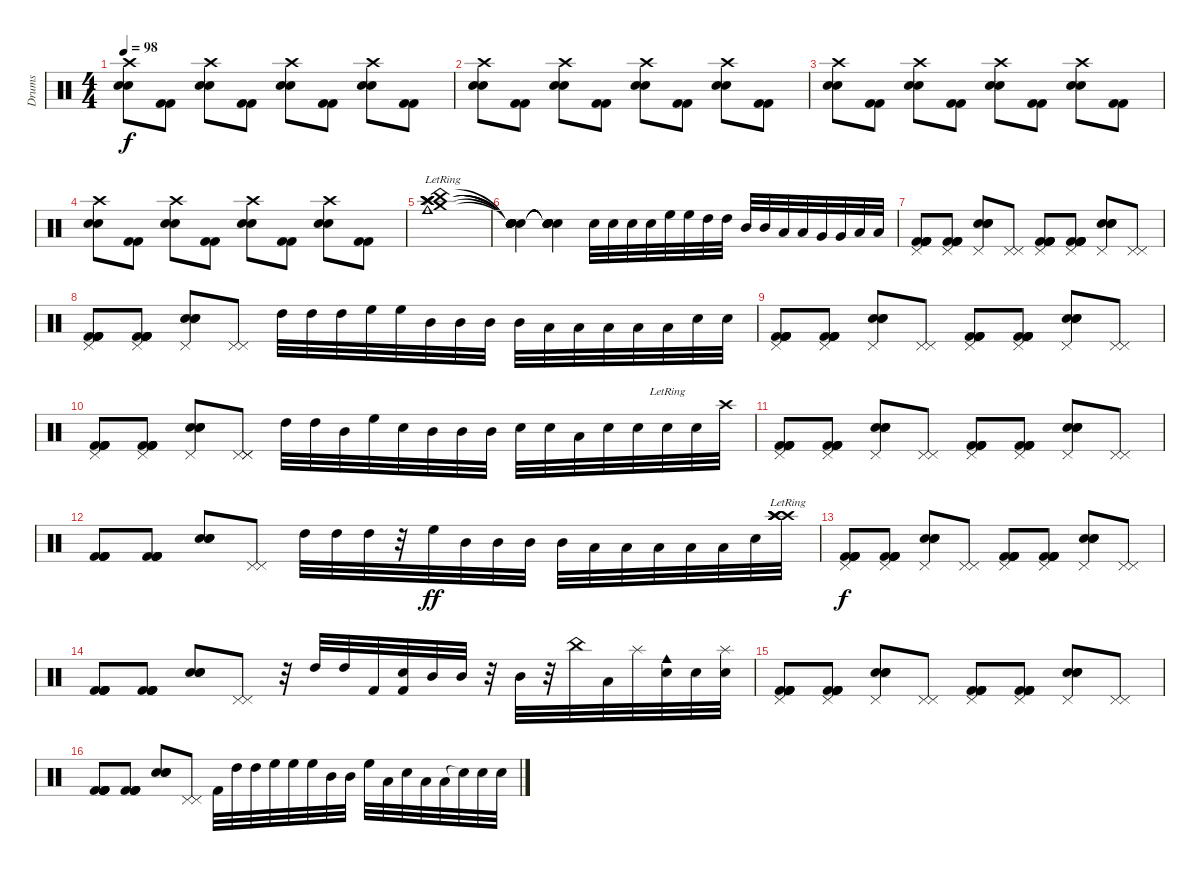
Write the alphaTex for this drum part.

\track ("Drums" "Drums") {instrument percussion}
\staff {score}
\articulation defaults
\ts (4 4)
\tempo 98
\clef neutral
\ks c
("Crash high (hit)" "Electric Snare (hit)" "Electric Snare (hit)").8{dy f} ("Kick (hit) 2" "Kick (hit) 2").8 ("Crash high (hit)" "Electric Snare (hit)" "Electric Snare (hit)").8 ("Kick (hit) 2" "Kick (hit) 2").8 ("Crash high (hit)" "Electric Snare (hit)" "Electric Snare (hit)").8 ("Kick (hit) 2" "Kick (hit) 2").8 ("Crash high (hit)" "Electric Snare (hit)" "Electric Snare (hit)").8 ("Kick (hit) 2" "Kick (hit) 2").8 |
("Crash high (hit)" "Electric Snare (hit)" "Electric Snare (hit)").8 ("Kick (hit) 2" "Kick (hit) 2").8 ("Crash high (hit)" "Electric Snare (hit)" "Electric Snare (hit)").8 ("Kick (hit) 2" "Kick (hit) 2").8 ("Crash high (hit)" "Electric Snare (hit)" "Electric Snare (hit)").8 ("Kick (hit) 2" "Kick (hit) 2").8 ("Crash high (hit)" "Electric Snare (hit)" "Electric Snare (hit)").8 ("Kick (hit) 2" "Kick (hit) 2").8 |
("Crash high (hit)" "Electric Snare (hit)" "Electric Snare (hit)").8 ("Kick (hit) 2" "Kick (hit) 2").8 ("Crash high (hit)" "Electric Snare (hit)" "Electric Snare (hit)").8 ("Kick (hit) 2" "Kick (hit) 2").8 ("Crash high (hit)" "Electric Snare (hit)" "Electric Snare (hit)").8 ("Kick (hit) 2" "Kick (hit) 2").8 ("Crash high (hit)" "Electric Snare (hit)" "Electric Snare (hit)").8 ("Kick (hit) 2" "Kick (hit) 2").8 |
("Crash high (hit)" "Electric Snare (hit)" "Electric Snare (hit)").8 ("Kick (hit) 2" "Kick (hit) 2").8 ("Crash high (hit)" "Electric Snare (hit)" "Electric Snare (hit)").8 ("Kick (hit) 2" "Kick (hit) 2").8 ("Crash high (hit)" "Electric Snare (hit)" "Electric Snare (hit)").8 ("Kick (hit) 2" "Kick (hit) 2").8 ("Crash high (hit)" "Electric Snare (hit)" "Electric Snare (hit)").8 ("Kick (hit) 2" "Kick (hit) 2").8 |
("Cowbell medium (hit)"{lr} "Crash high (hit)"{lr} "Crash high (hit)"{lr} "Crash medium (hit)"{lr} "China (hit)"{lr} "Splash (hit)"{lr}).1 |
("Snare (hit)"{t} "Snare (hit)"{t} "Snare (hit)"{t} "Snare (hit)"{t} "Snare (hit)"{t} "Snare (hit)"{t}).4 ("Snare (hit)"{t} "Snare (hit)"{t} "Snare (hit)"{t} "Snare (hit)"{t} "Snare (hit)"{t} "Snare (hit)"{t}).4 "Electric Snare (hit)".32 "Electric Snare (hit)".32 "Electric Snare (hit)".32 "Electric Snare (hit)".32 "High Floor Tom (hit)".32 "High Floor Tom (hit)".32 "High Tom (hit)".32 "High Tom (hit)".32 "Mid Tom (hit)".32 "Mid Tom (hit)".32 "Low Tom (hit)".32 "Low Tom (hit)".32 "Very Low Tom (hit)".32 "Very Low Tom (hit)".32 "Low Floor Tom (hit)".32 "Low Floor Tom (hit)".32 |
("Pedal Hi-Hat (hit)" "Kick (hit) 2" "Kick (hit) 2" "Kick (hit) 2" "Kick (hit) 2").8 ("Pedal Hi-Hat (hit)" "Kick (hit) 2" "Kick (hit) 2" "Kick (hit) 2" "Kick (hit) 2").8 ("Pedal Hi-Hat (hit)" "Electric Snare (hit)" "Electric Snare (hit)" "Electric Snare (hit)").8 ("Pedal Hi-Hat (hit)" "Pedal Hi-Hat (hit)").8 ("Pedal Hi-Hat (hit)" "Kick (hit) 2" "Kick (hit) 2" "Kick (hit) 2" "Kick (hit) 2").8 ("Pedal Hi-Hat (hit)" "Kick (hit) 2" "Kick (hit) 2" "Kick (hit) 2" "Kick (hit) 2").8 ("Pedal Hi-Hat (hit)" "Electric Snare (hit)" "Electric Snare (hit)" "Electric Snare (hit)").8 ("Pedal Hi-Hat (hit)" "Pedal Hi-Hat (hit)").8 |
("Pedal Hi-Hat (hit)" "Kick (hit) 2" "Kick (hit) 2" "Kick (hit) 2" "Kick (hit) 2").8 ("Pedal Hi-Hat (hit)" "Kick (hit) 2" "Kick (hit) 2" "Kick (hit) 2" "Kick (hit) 2").8 ("Pedal Hi-Hat (hit)" "Electric Snare (hit)" "Electric Snare (hit)" "Electric Snare (hit)").8 ("Pedal Hi-Hat (hit)" "Pedal Hi-Hat (hit)").8 "High Tom (hit)".32 "High Tom (hit)".32 "High Tom (hit)".32 "High Floor Tom (hit)".32 "High Floor Tom (hit)".32 "Mid Tom (hit)".32 "Mid Tom (hit)".32 "Mid Tom (hit)".32 "Mid Tom (hit)".32 "Low Tom (hit)".32 "Low Tom (hit)".32 "Low Tom (hit)".32 "Low Floor Tom (hit)".32 "Low Floor Tom (hit)".32 "Electric Snare (hit)".32 "Electric Snare (hit)".32 |
("Pedal Hi-Hat (hit)" "Kick (hit) 2" "Kick (hit) 2" "Kick (hit) 2" "Kick (hit) 2").8 ("Pedal Hi-Hat (hit)" "Kick (hit) 2" "Kick (hit) 2" "Kick (hit) 2" "Kick (hit) 2").8 ("Pedal Hi-Hat (hit)" "Electric Snare (hit)" "Electric Snare (hit)" "Electric Snare (hit)").8 ("Pedal Hi-Hat (hit)" "Pedal Hi-Hat (hit)").8 ("Pedal Hi-Hat (hit)" "Kick (hit) 2" "Kick (hit) 2" "Kick (hit) 2" "Kick (hit) 2").8 ("Pedal Hi-Hat (hit)" "Kick (hit) 2" "Kick (hit) 2" "Kick (hit) 2" "Kick (hit) 2").8 ("Pedal Hi-Hat (hit)" "Electric Snare (hit)" "Electric Snare (hit)" "Electric Snare (hit)").8 ("Pedal Hi-Hat (hit)" "Pedal Hi-Hat (hit)").8 |
("Pedal Hi-Hat (hit)" "Kick (hit) 2" "Kick (hit) 2" "Kick (hit) 2" "Kick (hit) 2").8 ("Pedal Hi-Hat (hit)" "Kick (hit) 2" "Kick (hit) 2" "Kick (hit) 2" "Kick (hit) 2").8 ("Pedal Hi-Hat (hit)" "Electric Snare (hit)" "Electric Snare (hit)" "Electric Snare (hit)").8 ("Pedal Hi-Hat (hit)" "Pedal Hi-Hat (hit)" "Pedal Hi-Hat (hit)").8 "High Tom (hit)".32 "High Tom (hit)".32 "Mid Tom (hit)".32 "High Floor Tom (hit)".32 "Snare (hit) 2".32 "Mid Tom (hit)".32 "Mid Tom (hit)".32 "Mid Tom (hit)".32 "Snare (hit) 2".32 "Snare (hit) 2".32 "Low Tom (hit)".32 "Snare (hit) 2".32 "Electric Snare (hit)".32 "Snare (hit) 2"{lr}.32 "Snare (hit) 2".32 "Crash high (hit)".32 |
("Pedal Hi-Hat (hit)" "Kick (hit) 2" "Kick (hit) 2" "Kick (hit) 2" "Kick (hit) 2").8 ("Pedal Hi-Hat (hit)" "Kick (hit) 2" "Kick (hit) 2" "Kick (hit) 2" "Kick (hit) 2").8 ("Pedal Hi-Hat (hit)" "Electric Snare (hit)" "Electric Snare (hit)" "Electric Snare (hit)").8 ("Pedal Hi-Hat (hit)" "Pedal Hi-Hat (hit)").8 ("Pedal Hi-Hat (hit)" "Kick (hit) 2" "Kick (hit) 2" "Kick (hit) 2" "Kick (hit) 2").8 ("Pedal Hi-Hat (hit)" "Kick (hit) 2" "Kick (hit) 2" "Kick (hit) 2" "Kick (hit) 2").8 ("Pedal Hi-Hat (hit)" "Electric Snare (hit)" "Electric Snare (hit)" "Electric Snare (hit)").8 ("Pedal Hi-Hat (hit)" "Pedal Hi-Hat (hit)").8 |
("Kick (hit) 2" "Kick (hit) 2" "Kick (hit) 2" "Kick (hit) 2").8 ("Kick (hit) 2" "Kick (hit) 2" "Kick (hit) 2" "Kick (hit) 2").8 ("Electric Snare (hit)" "Electric Snare (hit)" "Electric Snare (hit)").8 ("Pedal Hi-Hat (hit)" "Pedal Hi-Hat (hit)").8 "High Tom (hit)".32 "High Tom (hit)".32 "High Tom (hit)".32 r.32 "High Floor Tom (hit)".32{dy ff} "Mid Tom (hit)".32 "Mid Tom (hit)".32 "Mid Tom (hit)".32 "Mid Tom (hit)".32 "Low Tom (hit)".32 "Low Tom (hit)".32 "Low Tom (hit)".32 "Low Floor Tom (hit)".32 "Low Floor Tom (hit)".32 "Electric Snare (hit)".32 ("Crash high (hit)"{lr} "Crash high (hit)"{lr} "Crash high (hit)"{lr} "Crash high (hit)"{lr}).32 |
("Pedal Hi-Hat (hit)" "Kick (hit) 2" "Kick (hit) 2" "Kick (hit) 2" "Kick (hit) 2").8{dy f} ("Pedal Hi-Hat (hit)" "Kick (hit) 2" "Kick (hit) 2" "Kick (hit) 2" "Kick (hit) 2").8 ("Pedal Hi-Hat (hit)" "Electric Snare (hit)" "Electric Snare (hit)" "Electric Snare (hit)").8 ("Pedal Hi-Hat (hit)" "Pedal Hi-Hat (hit)").8 ("Pedal Hi-Hat (hit)" "Kick (hit) 2" "Kick (hit) 2" "Kick (hit) 2" "Kick (hit) 2").8 ("Pedal Hi-Hat (hit)" "Kick (hit) 2" "Kick (hit) 2" "Kick (hit) 2" "Kick (hit) 2").8 ("Pedal Hi-Hat (hit)" "Electric Snare (hit)" "Electric Snare (hit)" "Electric Snare (hit)").8 ("Pedal Hi-Hat (hit)" "Pedal Hi-Hat (hit)").8 |
("Kick (hit) 2" "Kick (hit) 2" "Kick (hit) 2" "Kick (hit) 2").8 ("Kick (hit) 2" "Kick (hit) 2" "Kick (hit) 2" "Kick (hit) 2").8 ("Electric Snare (hit)" "Electric Snare (hit)" "Electric Snare (hit)").8 ("Pedal Hi-Hat (hit)" "Pedal Hi-Hat (hit)").8 r.32 "High Tom (hit)".32 "High Tom (hit)".32 "Kick (hit) 2".32 ("Electric Snare (hit)" "Kick (hit) 2").32 "Mid Tom (hit)".32 "Mid Tom (hit)".32 r.32 "Mid Tom (hit)".32 r.32 "China (hit)".32 "Low Tom (hit)".32 "Splash (hit)".32 ("Electric Snare (hit)" "Cowbell medium (hit)").32 "Electric Snare (hit)".32 ("Splash (hit)" "Electric Snare (hit)").32 |
("Pedal Hi-Hat (hit)" "Kick (hit) 2" "Kick (hit) 2" "Kick (hit) 2" "Kick (hit) 2").8 ("Pedal Hi-Hat (hit)" "Kick (hit) 2" "Kick (hit) 2" "Kick (hit) 2" "Kick (hit) 2").8 ("Pedal Hi-Hat (hit)" "Electric Snare (hit)" "Electric Snare (hit)" "Electric Snare (hit)").8 ("Pedal Hi-Hat (hit)" "Pedal Hi-Hat (hit)").8 ("Pedal Hi-Hat (hit)" "Kick (hit) 2" "Kick (hit) 2" "Kick (hit) 2" "Kick (hit) 2").8 ("Pedal Hi-Hat (hit)" "Kick (hit) 2" "Kick (hit) 2" "Kick (hit) 2" "Kick (hit) 2").8 ("Pedal Hi-Hat (hit)" "Electric Snare (hit)" "Electric Snare (hit)" "Electric Snare (hit)").8 ("Pedal Hi-Hat (hit)" "Pedal Hi-Hat (hit)").8 |
("Kick (hit) 2" "Kick (hit) 2" "Kick (hit) 2" "Kick (hit) 2").8 ("Kick (hit) 2" "Kick (hit) 2" "Kick (hit) 2" "Kick (hit) 2").8 ("Electric Snare (hit)" "Electric Snare (hit)" "Electric Snare (hit)").8 ("Pedal Hi-Hat (hit)" "Pedal Hi-Hat (hit)").8 "Kick (hit) 2".32 "High Tom (hit)".32 "High Tom (hit)".32 "High Floor Tom (hit)".32 "High Floor Tom (hit)".32 "High Floor Tom (hit)".32 "Mid Tom (hit)".32 "Mid Tom (hit)".32 "High Floor Tom (hit)".32 "Low Floor Tom (hit)".32 "Snare (hit) 2".32 "Low Tom (hit)".32 "Low Floor Tom (hit)".32 "Snare (hit)"{t}.32 "Electric Snare (hit)".32 "Electric Snare (hit)".32
